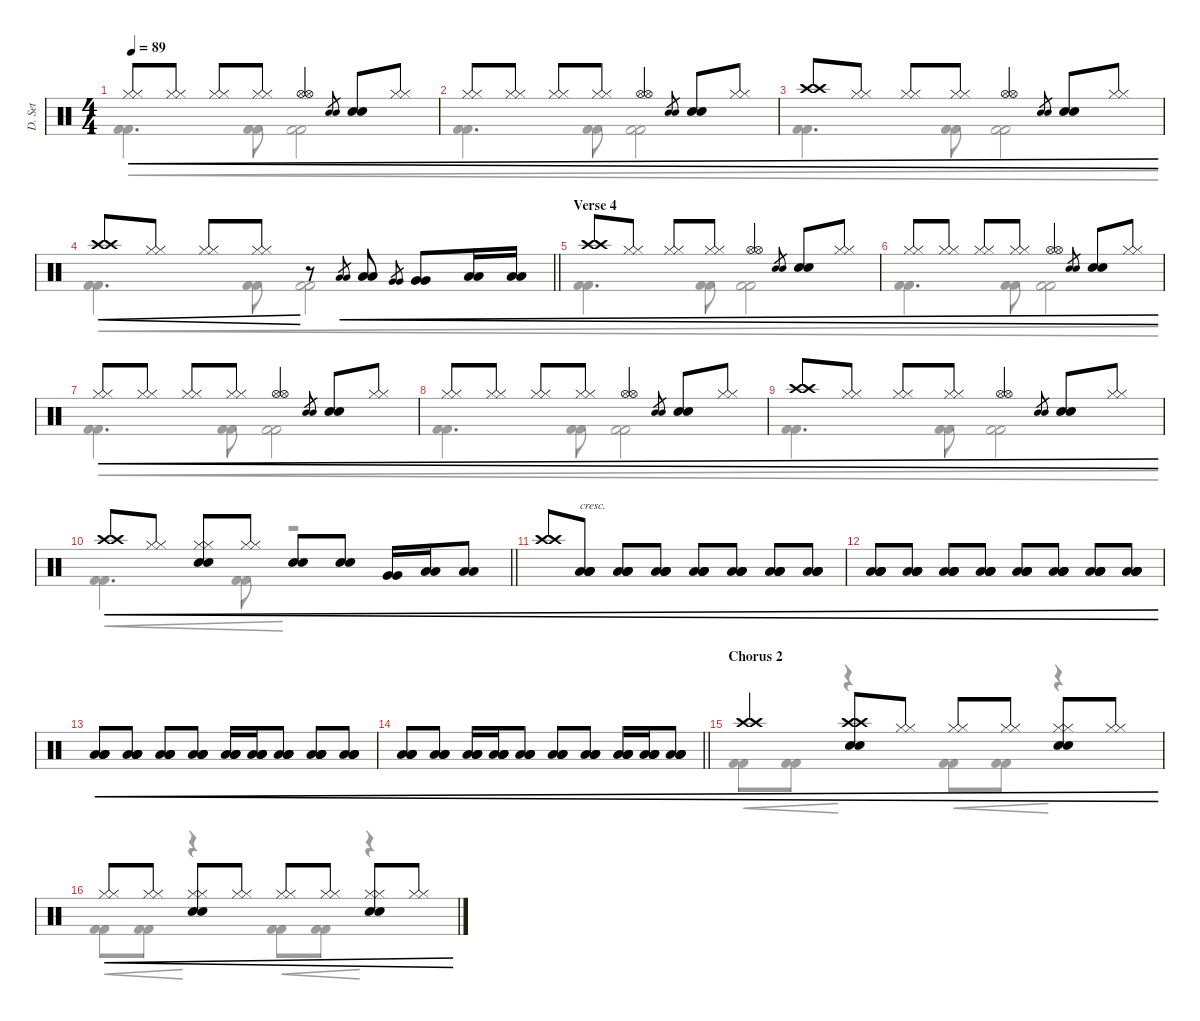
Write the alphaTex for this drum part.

\defaultSystemsLayout 4
\hideDynamics
\bracketExtendMode groupsimilarinstruments
\otherSystemsTrackNameOrientation horizontal
\track ("Drumset" "D. Set") {instrument percussion}
\staff {score}
\articulation defaults
\voice
\ts (4 4)
\tempo 89
\clef neutral
\ks c
("Hi-Hat (closed)" "Hi-Hat (closed)").8{cre dy f beam Up} ("Hi-Hat (closed)" "Hi-Hat (closed)").8{cre beam Up} ("Hi-Hat (closed)" "Hi-Hat (closed)").8{cre beam Up} ("Hi-Hat (closed)" "Hi-Hat (closed)").8{cre beam Up} ("Hi-Hat (open)" "Hi-Hat (open)").4{cre beam Up} ("Electric Snare (hit)" "Electric Snare (hit)").8{gr cre beam Up} ("Electric Snare (hit)" "Electric Snare (hit)").8{cre beam Up} ("Hi-Hat (closed)" "Hi-Hat (closed)").8{cre beam Up} |
("Hi-Hat (closed)" "Hi-Hat (closed)").8{cre beam Up} ("Hi-Hat (closed)" "Hi-Hat (closed)").8{cre beam Up} ("Hi-Hat (closed)" "Hi-Hat (closed)").8{cre beam Up} ("Hi-Hat (closed)" "Hi-Hat (closed)").8{cre beam Up} ("Hi-Hat (open)" "Hi-Hat (open)").4{cre beam Up} ("Electric Snare (hit)" "Electric Snare (hit)").8{gr cre beam Up} ("Electric Snare (hit)" "Electric Snare (hit)").8{cre beam Up} ("Hi-Hat (closed)" "Hi-Hat (closed)").8{cre beam Up} |
("Crash high (hit)" "Crash high (hit)").8{cre beam Up} ("Hi-Hat (closed)" "Hi-Hat (closed)").8{cre beam Up} ("Hi-Hat (closed)" "Hi-Hat (closed)").8{cre beam Up} ("Hi-Hat (closed)" "Hi-Hat (closed)").8{cre beam Up} ("Hi-Hat (open)" "Hi-Hat (open)").4{cre beam Up} ("Electric Snare (hit)" "Electric Snare (hit)").8{gr cre beam Up} ("Electric Snare (hit)" "Electric Snare (hit)").8{cre beam Up} ("Hi-Hat (closed)" "Hi-Hat (closed)").8{cre beam Up} |
\barLineRight lightlight
("Crash high (hit)" "Crash high (hit)").8{cre beam Up} ("Hi-Hat (closed)" "Hi-Hat (closed)").8{cre beam Up} ("Hi-Hat (closed)" "Hi-Hat (closed)").8{cre beam Up} ("Hi-Hat (closed)" "Hi-Hat (closed)").8{cre beam Up} r.8 ("Low Tom (hit)" "Low Tom (hit)").8{gr cre beam Up} ("Low Tom (hit)" "Low Tom (hit)").8{cre beam Up} ("Very Low Tom (hit)" "Very Low Tom (hit)").8{gr cre beam Up} ("Very Low Tom (hit)" "Very Low Tom (hit)").8{cre beam Up} ("Low Floor Tom (hit)" "Low Floor Tom (hit)").16{cre beam Up} ("Low Floor Tom (hit)" "Low Floor Tom (hit)").16{cre beam Up} |
\section ("" "Verse 4")
("Crash high (hit)" "Crash high (hit)").8{cre beam Up} ("Hi-Hat (closed)" "Hi-Hat (closed)").8{cre beam Up} ("Hi-Hat (closed)" "Hi-Hat (closed)").8{cre beam Up} ("Hi-Hat (closed)" "Hi-Hat (closed)").8{cre beam Up} ("Hi-Hat (open)" "Hi-Hat (open)").4{cre beam Up} ("Electric Snare (hit)" "Electric Snare (hit)").8{gr cre beam Up} ("Electric Snare (hit)" "Electric Snare (hit)").8{cre beam Up} ("Hi-Hat (closed)" "Hi-Hat (closed)").8{cre beam Up} |
("Hi-Hat (closed)" "Hi-Hat (closed)").8{cre beam Up} ("Hi-Hat (closed)" "Hi-Hat (closed)").8{cre beam Up} ("Hi-Hat (closed)" "Hi-Hat (closed)").8{cre beam Up} ("Hi-Hat (closed)" "Hi-Hat (closed)").8{cre beam Up} ("Hi-Hat (open)" "Hi-Hat (open)").4{cre beam Up} ("Electric Snare (hit)" "Electric Snare (hit)").8{gr cre beam Up} ("Electric Snare (hit)" "Electric Snare (hit)").8{cre beam Up} ("Hi-Hat (closed)" "Hi-Hat (closed)").8{cre beam Up} |
("Hi-Hat (closed)" "Hi-Hat (closed)").8{cre beam Up} ("Hi-Hat (closed)" "Hi-Hat (closed)").8{cre beam Up} ("Hi-Hat (closed)" "Hi-Hat (closed)").8{cre beam Up} ("Hi-Hat (closed)" "Hi-Hat (closed)").8{cre beam Up} ("Hi-Hat (open)" "Hi-Hat (open)").4{cre beam Up} ("Electric Snare (hit)" "Electric Snare (hit)").8{gr cre beam Up} ("Electric Snare (hit)" "Electric Snare (hit)").8{cre beam Up} ("Hi-Hat (closed)" "Hi-Hat (closed)").8{cre beam Up} |
("Hi-Hat (closed)" "Hi-Hat (closed)").8{cre beam Up} ("Hi-Hat (closed)" "Hi-Hat (closed)").8{cre beam Up} ("Hi-Hat (closed)" "Hi-Hat (closed)").8{cre beam Up} ("Hi-Hat (closed)" "Hi-Hat (closed)").8{cre beam Up} ("Hi-Hat (open)" "Hi-Hat (open)").4{cre beam Up} ("Electric Snare (hit)" "Electric Snare (hit)").8{gr cre beam Up} ("Electric Snare (hit)" "Electric Snare (hit)").8{cre beam Up} ("Hi-Hat (closed)" "Hi-Hat (closed)").8{cre beam Up} |
("Crash high (hit)" "Crash high (hit)").8{cre beam Up} ("Hi-Hat (closed)" "Hi-Hat (closed)").8{cre beam Up} ("Hi-Hat (closed)" "Hi-Hat (closed)").8{cre beam Up} ("Hi-Hat (closed)" "Hi-Hat (closed)").8{cre beam Up} ("Hi-Hat (open)" "Hi-Hat (open)").4{cre beam Up} ("Electric Snare (hit)" "Electric Snare (hit)").8{gr cre beam Up} ("Electric Snare (hit)" "Electric Snare (hit)").8{cre beam Up} ("Hi-Hat (closed)" "Hi-Hat (closed)").8{cre beam Up} |
\barLineRight lightlight
("Crash high (hit)" "Crash high (hit)").8{cre beam Up} ("Hi-Hat (closed)" "Hi-Hat (closed)").8{cre beam Up} ("Electric Snare (hit)" "Electric Snare (hit)" "Hi-Hat (closed)" "Hi-Hat (closed)").8{cre beam Up} ("Hi-Hat (closed)" "Hi-Hat (closed)").8{cre beam Up} ("Electric Snare (hit)" "Electric Snare (hit)").8{cre beam Up} ("Electric Snare (hit)" "Electric Snare (hit)").8{cre beam Up} ("Very Low Tom (hit)" "Very Low Tom (hit)").16{cre beam Up} ("Low Tom (hit)" "Low Tom (hit)").16{cre beam Up} ("Low Floor Tom (hit)" "Low Floor Tom (hit)").8{cre beam Up} |
("Crash high (hit)" "Crash high (hit)").8{cre beam Up} ("Low Floor Tom (hit)" "Low Floor Tom (hit)" "Low Tom (hit)" "Low Tom (hit)").8{txt "cresc." cre dy p beam Up} ("Low Floor Tom (hit)" "Low Floor Tom (hit)" "Low Tom (hit)" "Low Tom (hit)").8{cre beam Up} ("Low Floor Tom (hit)" "Low Floor Tom (hit)" "Low Tom (hit)" "Low Tom (hit)").8{cre beam Up} ("Low Floor Tom (hit)" "Low Floor Tom (hit)" "Low Tom (hit)" "Low Tom (hit)").8{cre beam Up} ("Low Floor Tom (hit)" "Low Floor Tom (hit)" "Low Tom (hit)" "Low Tom (hit)").8{cre beam Up} ("Low Floor Tom (hit)" "Low Floor Tom (hit)" "Low Tom (hit)" "Low Tom (hit)").8{cre beam Up} ("Low Floor Tom (hit)" "Low Floor Tom (hit)" "Low Tom (hit)" "Low Tom (hit)").8{cre beam Up} |
("Low Floor Tom (hit)" "Low Floor Tom (hit)" "Low Tom (hit)" "Low Tom (hit)").8{cre beam Up} ("Low Floor Tom (hit)" "Low Floor Tom (hit)" "Low Tom (hit)" "Low Tom (hit)").8{cre beam Up} ("Low Floor Tom (hit)" "Low Floor Tom (hit)" "Low Tom (hit)" "Low Tom (hit)").8{cre beam Up} ("Low Floor Tom (hit)" "Low Floor Tom (hit)" "Low Tom (hit)" "Low Tom (hit)").8{cre beam Up} ("Low Floor Tom (hit)" "Low Floor Tom (hit)" "Low Tom (hit)" "Low Tom (hit)").8{cre beam Up} ("Low Floor Tom (hit)" "Low Floor Tom (hit)" "Low Tom (hit)" "Low Tom (hit)").8{cre beam Up} ("Low Floor Tom (hit)" "Low Floor Tom (hit)" "Low Tom (hit)" "Low Tom (hit)").8{cre beam Up} ("Low Floor Tom (hit)" "Low Floor Tom (hit)" "Low Tom (hit)" "Low Tom (hit)").8{cre beam Up} |
("Low Floor Tom (hit)" "Low Floor Tom (hit)" "Low Tom (hit)" "Low Tom (hit)").8{cre dy f beam Up} ("Low Floor Tom (hit)" "Low Floor Tom (hit)" "Low Tom (hit)" "Low Tom (hit)").8{cre beam Up} ("Low Floor Tom (hit)" "Low Floor Tom (hit)" "Low Tom (hit)" "Low Tom (hit)").8{cre beam Up} ("Low Floor Tom (hit)" "Low Floor Tom (hit)" "Low Tom (hit)" "Low Tom (hit)").8{cre beam Up} ("Low Floor Tom (hit)" "Low Floor Tom (hit)" "Low Tom (hit)" "Low Tom (hit)").16{cre beam Up} ("Low Floor Tom (hit)" "Low Floor Tom (hit)" "Low Tom (hit)" "Low Tom (hit)").16{cre beam Up} ("Low Floor Tom (hit)" "Low Floor Tom (hit)" "Low Tom (hit)" "Low Tom (hit)").8{cre beam Up} ("Low Floor Tom (hit)" "Low Floor Tom (hit)" "Low Tom (hit)" "Low Tom (hit)").8{cre beam Up} ("Low Floor Tom (hit)" "Low Floor Tom (hit)" "Low Tom (hit)" "Low Tom (hit)").8{cre beam Up} |
\barLineRight lightlight
("Low Floor Tom (hit)" "Low Floor Tom (hit)" "Low Tom (hit)" "Low Tom (hit)").8{cre beam Up} ("Low Floor Tom (hit)" "Low Floor Tom (hit)" "Low Tom (hit)" "Low Tom (hit)").8{cre beam Up} ("Low Floor Tom (hit)" "Low Floor Tom (hit)" "Low Tom (hit)" "Low Tom (hit)").16{cre beam Up} ("Low Floor Tom (hit)" "Low Floor Tom (hit)" "Low Tom (hit)" "Low Tom (hit)").16{cre beam Up} ("Low Floor Tom (hit)" "Low Floor Tom (hit)" "Low Tom (hit)" "Low Tom (hit)").8{cre beam Up} ("Low Floor Tom (hit)" "Low Floor Tom (hit)" "Low Tom (hit)" "Low Tom (hit)").8{cre beam Up} ("Low Floor Tom (hit)" "Low Floor Tom (hit)" "Low Tom (hit)" "Low Tom (hit)").8{cre beam Up} ("Low Floor Tom (hit)" "Low Floor Tom (hit)" "Low Tom (hit)" "Low Tom (hit)").16{cre beam Up} ("Low Floor Tom (hit)" "Low Floor Tom (hit)" "Low Tom (hit)" "Low Tom (hit)").16{cre beam Up} ("Low Floor Tom (hit)" "Low Floor Tom (hit)" "Low Tom (hit)" "Low Tom (hit)").8{cre beam Up} |
\section ("" "Chorus 2")
("Crash high (hit)" "Crash high (hit)").4{cre beam Up} ("Electric Snare (hit)" "Electric Snare (hit)" "Crash high (hit)" "Crash high (hit)").8{cre beam Up} ("Hi-Hat (closed)" "Hi-Hat (closed)").8{cre beam Up} ("Hi-Hat (closed)" "Hi-Hat (closed)").8{cre beam Up} ("Hi-Hat (closed)" "Hi-Hat (closed)").8{cre beam Up} ("Electric Snare (hit)" "Electric Snare (hit)" "Hi-Hat (closed)" "Hi-Hat (closed)").8{cre beam Up} ("Hi-Hat (closed)" "Hi-Hat (closed)").8{cre beam Up} |
("Hi-Hat (closed)" "Hi-Hat (closed)").8{cre beam Up} ("Hi-Hat (closed)" "Hi-Hat (closed)").8{cre beam Up} ("Electric Snare (hit)" "Electric Snare (hit)" "Hi-Hat (closed)" "Hi-Hat (closed)").8{cre beam Up} ("Hi-Hat (closed)" "Hi-Hat (closed)").8{cre beam Up} ("Hi-Hat (closed)" "Hi-Hat (closed)").8{cre beam Up} ("Hi-Hat (closed)" "Hi-Hat (closed)").8{cre beam Up} ("Electric Snare (hit)" "Electric Snare (hit)" "Hi-Hat (closed)" "Hi-Hat (closed)").8{cre beam Up} ("Hi-Hat (closed)" "Hi-Hat (closed)").8{cre beam Up}
\voice
\clef neutral
\ottava regular
\simile none
\ks c
("Kick (hit) 2" "Kick (hit) 2").4{d cre dy f beam Down} ("Kick (hit) 2" "Kick (hit) 2").8{cre beam Down} ("Kick (hit) 2" "Kick (hit) 2").2{cre beam Down} |
("Kick (hit) 2" "Kick (hit) 2").4{d cre beam Down} ("Kick (hit) 2" "Kick (hit) 2").8{cre beam Down} ("Kick (hit) 2" "Kick (hit) 2").2{cre beam Down} |
("Kick (hit) 2" "Kick (hit) 2").4{d cre beam Down} ("Kick (hit) 2" "Kick (hit) 2").8{cre beam Down} ("Kick (hit) 2" "Kick (hit) 2").2{cre beam Down} |
\barLineRight lightlight
("Kick (hit) 2" "Kick (hit) 2").4{d cre beam Down} ("Kick (hit) 2" "Kick (hit) 2").8{cre beam Down} ("Kick (hit) 2" "Kick (hit) 2").2{cre beam Down} |
("Kick (hit) 2" "Kick (hit) 2").4{d cre beam Down} ("Kick (hit) 2" "Kick (hit) 2").8{cre beam Down} ("Kick (hit) 2" "Kick (hit) 2").2{cre beam Down} |
("Kick (hit) 2" "Kick (hit) 2").4{d cre beam Down} ("Kick (hit) 2" "Kick (hit) 2").8{cre beam Down} ("Kick (hit) 2" "Kick (hit) 2").2{cre beam Down} |
("Kick (hit) 2" "Kick (hit) 2").4{d cre beam Down} ("Kick (hit) 2" "Kick (hit) 2").8{cre beam Down} ("Kick (hit) 2" "Kick (hit) 2").2{cre beam Down} |
("Kick (hit) 2" "Kick (hit) 2").4{d cre beam Down} ("Kick (hit) 2" "Kick (hit) 2").8{cre beam Down} ("Kick (hit) 2" "Kick (hit) 2").2{cre beam Down} |
("Kick (hit) 2" "Kick (hit) 2").4{d cre beam Down} ("Kick (hit) 2" "Kick (hit) 2").8{cre beam Down} ("Kick (hit) 2" "Kick (hit) 2").2{cre beam Down} |
\barLineRight lightlight
("Kick (hit) 2" "Kick (hit) 2").4{d cre beam Down} ("Kick (hit) 2" "Kick (hit) 2").8{cre beam Down} r.2 |
|
|
|
\barLineRight lightlight
|
("Kick (hit) 2" "Kick (hit) 2").8{cre beam Down} ("Kick (hit) 2" "Kick (hit) 2").8{cre beam Down} r.4 ("Kick (hit) 2" "Kick (hit) 2").8{cre beam Down} ("Kick (hit) 2" "Kick (hit) 2").8{cre beam Down} r.4 |
("Kick (hit) 2" "Kick (hit) 2").8{cre beam Down} ("Kick (hit) 2" "Kick (hit) 2").8{cre beam Down} r.4 ("Kick (hit) 2" "Kick (hit) 2").8{cre beam Down} ("Kick (hit) 2" "Kick (hit) 2").8{cre beam Down} r.4
